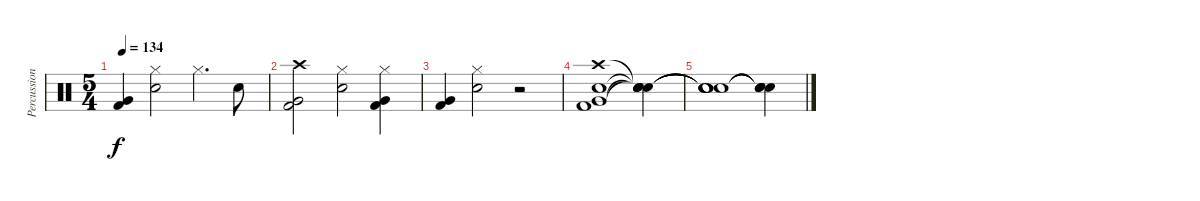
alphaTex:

\track ("Percussion" "Percussion") {instrument percussion}
\staff {score}
\articulation defaults
\ts (5 4)
\tempo 134
\clef neutral
\ks c
("Very Low Tom (hit)" "Kick (hit) 2").4{dy f} ("Hi-Hat (closed)" "Electric Snare (hit)").2 "Hi-Hat (closed)".4{d} "Electric Snare (hit)".8 |
("Crash high (hit)" "Very Low Tom (hit)" "Kick (hit) 2").2 ("Hi-Hat (closed)" "Electric Snare (hit)").2 ("Hi-Hat (closed)" "Very Low Tom (hit)" "Kick (hit) 2").4 |
("Very Low Tom (hit)" "Kick (hit) 2").4 ("Hi-Hat (closed)" "Electric Snare (hit)").2 r.2 |
("Crash high (hit)" "Electric Snare (hit)" "Very Low Tom (hit)" "Kick (hit) 2").1 ("Snare (hit)"{t} "Snare (hit)"{t} "Snare (hit)"{t} "Snare (hit)"{t}).4 |
("Snare (hit)"{t} "Snare (hit)"{t} "Snare (hit)"{t} "Snare (hit)"{t}).1 ("Snare (hit)"{t} "Snare (hit)"{t} "Snare (hit)"{t} "Snare (hit)"{t}).4
